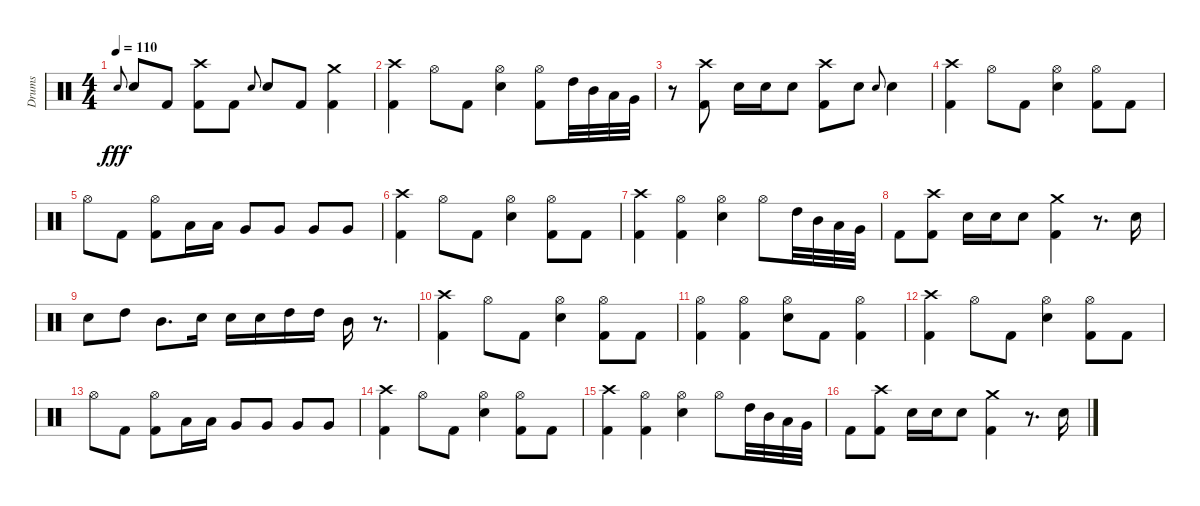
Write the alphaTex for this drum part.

\track ("Drums" "Drums") {instrument percussion}
\staff {score}
\articulation defaults
\ts (4 4)
\tempo 110
\clef neutral
\ks c "Snare (hit) 2".8{gr onbeat dy fff} "Snare (hit) 2".8 "Kick (hit) 2".8
("Kick (hit) 2" "Crash high (hit)").8 "Kick (hit) 2".8 "Snare (hit) 2".8{gr onbeat} "Snare (hit) 2".8 "Kick (hit) 2".8 ("Kick (hit) 2" "Crash medium (hit)").4 |
("Crash high (hit)" "Kick (hit) 2").4 "Hi-Hat (open)".8 "Kick (hit) 2".8 ("Hi-Hat (open)" "Snare (hit) 2").4 ("Hi-Hat (open)" "Kick (hit) 2").8 "High Tom (hit)".32 "Mid Tom (hit)".32 "Low Tom (hit)".32 "Very Low Tom (hit)".32 |
r.8 ("Kick (hit) 2" "Crash high (hit)").8 "Snare (hit) 2".16 "Snare (hit) 2".16 "Snare (hit) 2".8 ("Crash high (hit)" "Kick (hit) 2").8 "Snare (hit) 2".8 "Snare (hit) 2".8{gr onbeat} "Snare (hit) 2".4 |
("Crash high (hit)" "Kick (hit) 2").4 "Hi-Hat (open)".8 "Kick (hit) 2".8 ("Hi-Hat (open)" "Snare (hit) 2").4 ("Hi-Hat (open)" "Kick (hit) 2").8 "Kick (hit) 2".8 |
"Hi-Hat (open)".8 "Kick (hit) 2".8 ("Kick (hit) 2" "Hi-Hat (open)").8 "Low Tom (hit)".16 "Low Tom (hit)".16 "Very Low Tom (hit)".8 "Very Low Tom (hit)".8 "Very Low Tom (hit)".8 "Very Low Tom (hit)".8 |
("Crash high (hit)" "Kick (hit) 2").4 "Hi-Hat (open)".8 "Kick (hit) 2".8 ("Hi-Hat (open)" "Snare (hit) 2").4 ("Hi-Hat (open)" "Kick (hit) 2").8 "Kick (hit) 2".8 |
("Kick (hit) 2" "Crash high (hit)").4 ("Hi-Hat (open)" "Kick (hit) 2").4 ("Hi-Hat (open)" "Snare (hit) 2").4 "Hi-Hat (open)".8 "High Tom (hit)".32 "Mid Tom (hit)".32 "Low Tom (hit)".32 "Very Low Tom (hit)".32 |
"Kick (hit) 2".8 ("Kick (hit) 2" "Crash high (hit)").8 "Snare (hit) 2".16 "Snare (hit) 2".16 "Snare (hit) 2".8 ("Kick (hit) 2" "Crash medium (hit)").4 r.8{d} "Snare (hit) 2".16 |
"Snare (hit) 2".8 "High Tom (hit)".8 "Mid Tom (hit)".8{d} "Snare (hit) 2".16 "Snare (hit) 2".16 "Snare (hit) 2".16 "High Tom (hit)".16 "High Tom (hit)".16 "Mid Tom (hit)".16 r.8{d} |
("Crash high (hit)" "Kick (hit) 2").4 "Hi-Hat (open)".8 "Kick (hit) 2".8 ("Hi-Hat (open)" "Snare (hit) 2").4 ("Hi-Hat (open)" "Kick (hit) 2").8 "Kick (hit) 2".8 |
("Kick (hit) 2" "Hi-Hat (open)").4 ("Hi-Hat (open)" "Kick (hit) 2").4 ("Hi-Hat (open)" "Snare (hit) 2").8 "Kick (hit) 2".8 ("Kick (hit) 2" "Hi-Hat (open)").4 |
("Crash high (hit)" "Kick (hit) 2").4 "Hi-Hat (open)".8 "Kick (hit) 2".8 ("Hi-Hat (open)" "Snare (hit) 2").4 ("Hi-Hat (open)" "Kick (hit) 2").8 "Kick (hit) 2".8 |
"Hi-Hat (open)".8 "Kick (hit) 2".8 ("Kick (hit) 2" "Hi-Hat (open)").8 "Low Tom (hit)".16 "Low Tom (hit)".16 "Very Low Tom (hit)".8 "Very Low Tom (hit)".8 "Very Low Tom (hit)".8 "Very Low Tom (hit)".8 |
("Crash high (hit)" "Kick (hit) 2").4 "Hi-Hat (open)".8 "Kick (hit) 2".8 ("Hi-Hat (open)" "Snare (hit) 2").4 ("Hi-Hat (open)" "Kick (hit) 2").8 "Kick (hit) 2".8 |
("Kick (hit) 2" "Crash high (hit)").4 ("Hi-Hat (open)" "Kick (hit) 2").4 ("Hi-Hat (open)" "Snare (hit) 2").4 "Hi-Hat (open)".8 "High Tom (hit)".32 "Mid Tom (hit)".32 "Low Tom (hit)".32 "Very Low Tom (hit)".32 |
"Kick (hit) 2".8 ("Kick (hit) 2" "Crash high (hit)").8 "Snare (hit) 2".16 "Snare (hit) 2".16 "Snare (hit) 2".8 ("Kick (hit) 2" "Crash medium (hit)").4 r.8{d} "Snare (hit) 2".16
